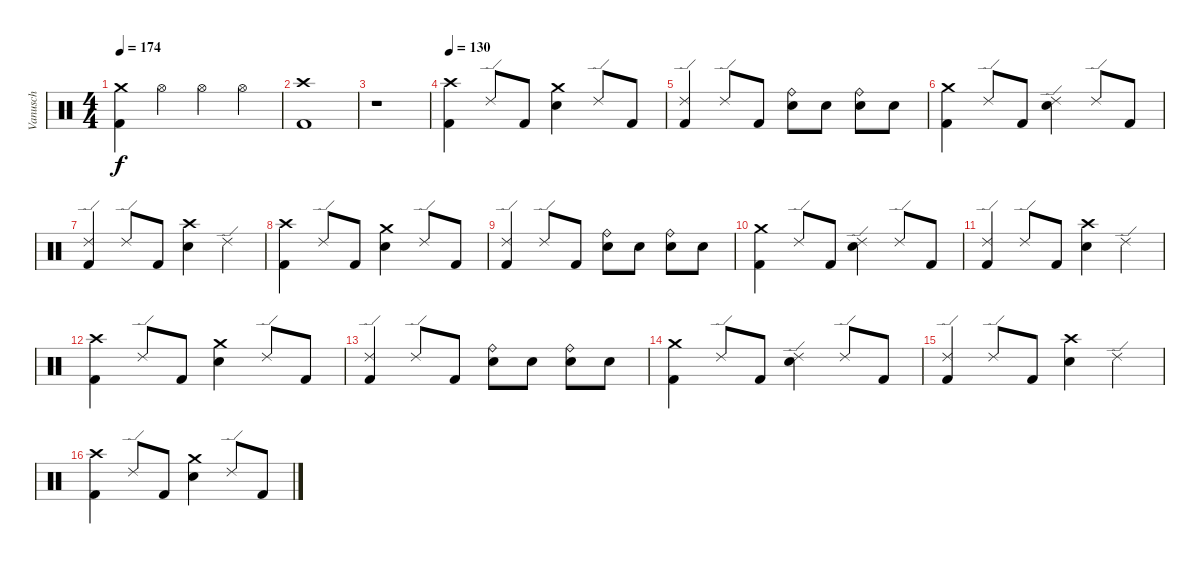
\track ("Vanusch" "Vanusch") {instrument percussion}
\staff {score}
\articulation defaults
\ts (4 4)
\tempo 174
\clef neutral
\ks c
("Crash medium (hit)" "Kick (hit) 2").4{dy f} "Hi-Hat (open)".4 "Hi-Hat (open)".4 "Hi-Hat (open)".4 |
("Crash high (hit)" "Kick (hit) 2").1 |
r.1 |
\tempo 130
("Crash high (hit)" "Kick (hit) 2").4 "Ride (edge) 2".8 "Kick (hit) 2".8 ("Crash medium (hit)" "Snare (hit) 2").4 "Ride (edge) 2".8 "Kick (hit) 2".8 |
("Ride (edge) 2" "Kick (hit) 2").4 "Ride (edge) 2".8 "Kick (hit) 2".8 ("Ride (bell)" "Snare (hit) 2").8 "Snare (hit) 2".8 ("Ride (bell)" "Snare (hit) 2").8 "Snare (hit) 2".8 |
("Crash medium (hit)" "Kick (hit) 2").4 "Ride (edge) 2".8 "Kick (hit) 2".8 ("Ride (edge) 2" "Snare (hit) 2").4 "Ride (edge) 2".8 "Kick (hit) 2".8 |
("Ride (edge) 2" "Kick (hit) 2").4 "Ride (edge) 2".8 "Kick (hit) 2".8 ("Crash high (hit)" "Snare (hit) 2").4 "Ride (edge) 2".4 |
("Crash high (hit)" "Kick (hit) 2").4 "Ride (edge) 2".8 "Kick (hit) 2".8 ("Crash medium (hit)" "Snare (hit) 2").4 "Ride (edge) 2".8 "Kick (hit) 2".8 |
("Ride (edge) 2" "Kick (hit) 2").4 "Ride (edge) 2".8 "Kick (hit) 2".8 ("Ride (bell)" "Snare (hit) 2").8 "Snare (hit) 2".8 ("Ride (bell)" "Snare (hit) 2").8 "Snare (hit) 2".8 |
("Crash medium (hit)" "Kick (hit) 2").4 "Ride (edge) 2".8 "Kick (hit) 2".8 ("Ride (edge) 2" "Snare (hit) 2").4 "Ride (edge) 2".8 "Kick (hit) 2".8 |
("Ride (edge) 2" "Kick (hit) 2").4 "Ride (edge) 2".8 "Kick (hit) 2".8 ("Crash high (hit)" "Snare (hit) 2").4 "Ride (edge) 2".4 |
("Crash high (hit)" "Kick (hit) 2").4 "Ride (edge) 2".8 "Kick (hit) 2".8 ("Crash medium (hit)" "Snare (hit) 2").4 "Ride (edge) 2".8 "Kick (hit) 2".8 |
("Ride (edge) 2" "Kick (hit) 2").4 "Ride (edge) 2".8 "Kick (hit) 2".8 ("Ride (bell)" "Snare (hit) 2").8 "Snare (hit) 2".8 ("Ride (bell)" "Snare (hit) 2").8 "Snare (hit) 2".8 |
("Crash medium (hit)" "Kick (hit) 2").4 "Ride (edge) 2".8 "Kick (hit) 2".8 ("Ride (edge) 2" "Snare (hit) 2").4 "Ride (edge) 2".8 "Kick (hit) 2".8 |
("Ride (edge) 2" "Kick (hit) 2").4 "Ride (edge) 2".8 "Kick (hit) 2".8 ("Crash high (hit)" "Snare (hit) 2").4 "Ride (edge) 2".4 |
("Crash high (hit)" "Kick (hit) 2").4 "Ride (edge) 2".8 "Kick (hit) 2".8 ("Crash medium (hit)" "Snare (hit) 2").4 "Ride (edge) 2".8 "Kick (hit) 2".8
